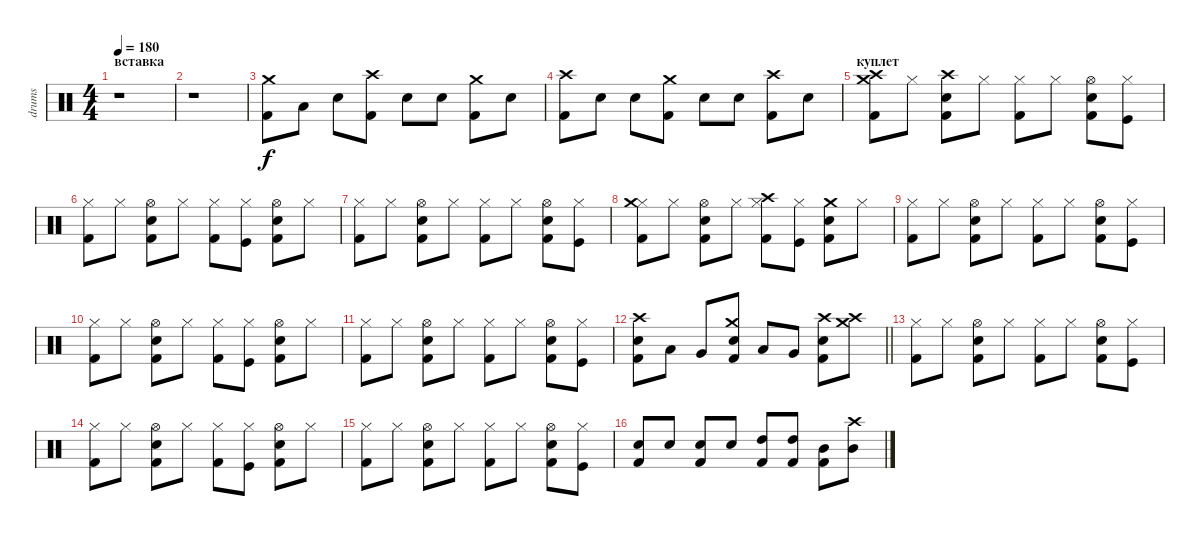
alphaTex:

\track ("drums" "drums") {instrument percussion}
\staff {score}
\articulation defaults
\ts (4 4)
\section ("" "вставка")
\tempo 180
\clef neutral
\ks c
r.1{dy f} |
r.1 |
("Kick (hit) 2" "Crash medium (hit)").8 "Low Floor Tom (hit)".8 "Electric Snare (hit)".8 ("Kick (hit) 2" "Crash high (hit)").8 "Electric Snare (hit)".8 "Electric Snare (hit)".8 ("Kick (hit) 2" "Crash medium (hit)").8 "Electric Snare (hit)".8 |
("Kick (hit) 2" "Crash high (hit)").8 "Electric Snare (hit)".8 "Electric Snare (hit)".8 ("Kick (hit) 2" "Crash medium (hit)").8 "Electric Snare (hit)".8 "Electric Snare (hit)".8 ("Kick (hit) 2" "Crash high (hit)").8 "Electric Snare (hit)".8 |
\section ("" "куплет")
("Crash high (hit)" "Kick (hit) 2" "Crash medium (hit)").8 "Hi-Hat (closed)".8 ("Electric Snare (hit)" "Kick (hit) 2" "Crash high (hit)").8 "Hi-Hat (closed)".8 ("Hi-Hat (closed)" "Kick (hit) 2").8 "Hi-Hat (closed)".8 ("Hi-Hat (open)" "Electric Snare (hit)" "Kick (hit) 2").8 ("Hi-Hat (closed)" "Kick (hit)").8 |
("Hi-Hat (closed)" "Kick (hit) 2").8 "Hi-Hat (closed)".8 ("Hi-Hat (open)" "Electric Snare (hit)" "Kick (hit) 2").8 "Hi-Hat (closed)".8 ("Hi-Hat (closed)" "Kick (hit) 2").8 ("Hi-Hat (closed)" "Kick (hit)").8 ("Hi-Hat (open)" "Electric Snare (hit)" "Kick (hit) 2").8 "Hi-Hat (closed)".8 |
("Hi-Hat (closed)" "Kick (hit) 2").8 "Hi-Hat (closed)".8 ("Hi-Hat (open)" "Electric Snare (hit)" "Kick (hit) 2").8 "Hi-Hat (closed)".8 ("Hi-Hat (closed)" "Kick (hit) 2").8 "Hi-Hat (closed)".8 ("Hi-Hat (open)" "Electric Snare (hit)" "Kick (hit) 2").8 ("Hi-Hat (closed)" "Kick (hit)").8 |
("Hi-Hat (closed)" "Crash medium (hit)" "Kick (hit) 2").8 "Hi-Hat (closed)".8 ("Hi-Hat (open)" "Electric Snare (hit)" "Kick (hit) 2").8 "Hi-Hat (closed)".8 ("Hi-Hat (closed)" "Kick (hit) 2" "Crash high (hit)").8 ("Hi-Hat (closed)" "Kick (hit)").8 ("Crash medium (hit)" "Electric Snare (hit)" "Kick (hit) 2").8 "Hi-Hat (closed)".8 |
("Hi-Hat (closed)" "Kick (hit) 2").8 "Hi-Hat (closed)".8 ("Hi-Hat (open)" "Electric Snare (hit)" "Kick (hit) 2").8 "Hi-Hat (closed)".8 ("Hi-Hat (closed)" "Kick (hit) 2").8 "Hi-Hat (closed)".8 ("Hi-Hat (open)" "Electric Snare (hit)" "Kick (hit) 2").8 ("Hi-Hat (closed)" "Kick (hit)").8 |
("Hi-Hat (closed)" "Kick (hit) 2").8 "Hi-Hat (closed)".8 ("Hi-Hat (open)" "Electric Snare (hit)" "Kick (hit) 2").8 "Hi-Hat (closed)".8 ("Hi-Hat (closed)" "Kick (hit) 2").8 ("Hi-Hat (closed)" "Kick (hit)").8 ("Hi-Hat (open)" "Electric Snare (hit)" "Kick (hit) 2").8 "Hi-Hat (closed)".8 |
("Hi-Hat (closed)" "Kick (hit) 2").8 "Hi-Hat (closed)".8 ("Hi-Hat (open)" "Electric Snare (hit)" "Kick (hit) 2").8 "Hi-Hat (closed)".8 ("Hi-Hat (closed)" "Kick (hit) 2").8 "Hi-Hat (closed)".8 ("Hi-Hat (open)" "Electric Snare (hit)" "Kick (hit) 2").8 ("Hi-Hat (closed)" "Kick (hit)").8 |
\barLineRight lightlight
("Crash high (hit)" "Electric Snare (hit)" "Kick (hit) 2").8 "Low Tom (hit)".8 "Very Low Tom (hit)".8 ("Crash medium (hit)" "Electric Snare (hit)" "Kick (hit) 2").8 "Low Tom (hit)".8 "Very Low Tom (hit)".8 ("Crash high (hit)" "Electric Snare (hit)" "Kick (hit) 2").8 ("Crash medium (hit)" "Crash high (hit)").8 |
("Hi-Hat (closed)" "Kick (hit) 2").8 "Hi-Hat (closed)".8 ("Hi-Hat (open)" "Electric Snare (hit)" "Kick (hit) 2").8 "Hi-Hat (closed)".8 ("Hi-Hat (closed)" "Kick (hit) 2").8 "Hi-Hat (closed)".8 ("Hi-Hat (open)" "Electric Snare (hit)" "Kick (hit) 2").8 ("Hi-Hat (closed)" "Kick (hit)").8 |
("Hi-Hat (closed)" "Kick (hit) 2").8 "Hi-Hat (closed)".8 ("Hi-Hat (open)" "Electric Snare (hit)" "Kick (hit) 2").8 "Hi-Hat (closed)".8 ("Hi-Hat (closed)" "Kick (hit) 2").8 ("Hi-Hat (closed)" "Kick (hit)").8 ("Hi-Hat (open)" "Electric Snare (hit)" "Kick (hit) 2").8 "Hi-Hat (closed)".8 |
("Hi-Hat (closed)" "Kick (hit) 2").8 "Hi-Hat (closed)".8 ("Hi-Hat (open)" "Electric Snare (hit)" "Kick (hit) 2").8 "Hi-Hat (closed)".8 ("Hi-Hat (closed)" "Kick (hit) 2").8 "Hi-Hat (closed)".8 ("Hi-Hat (open)" "Electric Snare (hit)" "Kick (hit) 2").8 ("Hi-Hat (closed)" "Kick (hit)").8 |
("Electric Snare (hit)" "Kick (hit) 2").8 "Electric Snare (hit)".8 ("Electric Snare (hit)" "Kick (hit) 2").8 "Electric Snare (hit)".8 ("High Tom (hit)" "Kick (hit) 2").8 ("High Tom (hit)" "Kick (hit) 2").8 ("Mid Tom (hit)" "Kick (hit) 2").8 ("Mid Tom (hit)" "Crash high (hit)").8
